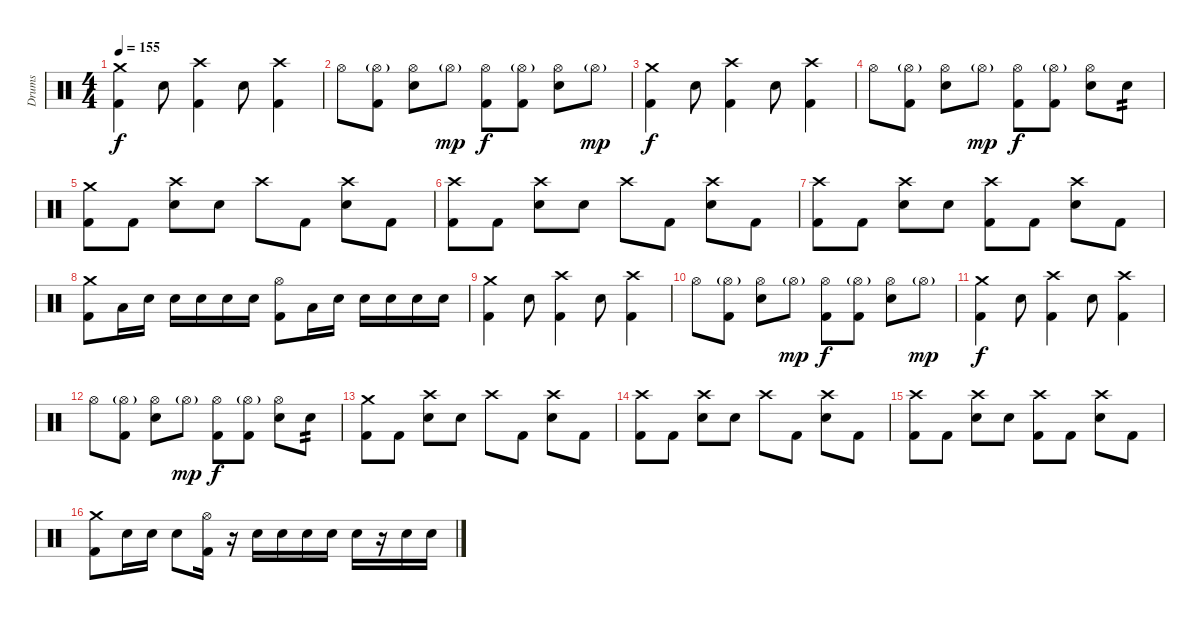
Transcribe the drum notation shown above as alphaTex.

\track ("Drums" "Drums") {instrument percussion}
\staff {score}
\articulation defaults
\ts (4 4)
\tempo 155
\clef neutral
\ks c
("Crash medium (hit)" "Kick (hit) 2").4{dy f} "Electric Snare (hit)".8 ("Crash high (hit)" "Kick (hit) 2").4 "Electric Snare (hit)".8 ("Crash high (hit)" "Kick (hit) 2").4 |
"Hi-Hat (open)".8 ("Hi-Hat (open)"{g} "Kick (hit) 2").8 ("Hi-Hat (open)" "Electric Snare (hit)").8 "Hi-Hat (open)"{g}.8{dy mp} ("Hi-Hat (open)" "Kick (hit) 2").8{dy f} ("Hi-Hat (open)"{g} "Kick (hit) 2").8 ("Hi-Hat (open)" "Electric Snare (hit)").8 "Hi-Hat (open)"{g}.8{dy mp} |
("Crash medium (hit)" "Kick (hit) 2").4{dy f} "Electric Snare (hit)".8 ("Crash high (hit)" "Kick (hit) 2").4 "Electric Snare (hit)".8 ("Crash high (hit)" "Kick (hit) 2").4 |
"Hi-Hat (open)".8 ("Hi-Hat (open)"{g} "Kick (hit) 2").8 ("Hi-Hat (open)" "Electric Snare (hit)").8 "Hi-Hat (open)"{g}.8{dy mp} ("Hi-Hat (open)" "Kick (hit) 2").8{dy f} ("Hi-Hat (open)"{g} "Kick (hit) 2").8 ("Hi-Hat (open)" "Electric Snare (hit)").8 "Electric Snare (hit)".8{tp 2} |
("Crash medium (hit)" "Kick (hit) 2").8 "Kick (hit) 2".8 ("Crash high (hit)" "Electric Snare (hit)").8 "Electric Snare (hit)".8 "Crash high (hit)".8 "Kick (hit) 2".8 ("Crash high (hit)" "Electric Snare (hit)").8 "Kick (hit) 2".8 |
("Crash high (hit)" "Kick (hit) 2").8 "Kick (hit) 2".8 ("Crash high (hit)" "Electric Snare (hit)").8 "Electric Snare (hit)".8 "Crash high (hit)".8 "Kick (hit) 2".8 ("Crash high (hit)" "Electric Snare (hit)").8 "Kick (hit) 2".8 |
("Crash high (hit)" "Kick (hit) 2").8 "Kick (hit) 2".8 ("Crash high (hit)" "Electric Snare (hit)").8 "Electric Snare (hit)".8 ("Crash high (hit)" "Kick (hit) 2").8 "Kick (hit) 2".8 ("Crash high (hit)" "Electric Snare (hit)").8 "Kick (hit) 2".8 |
("Crash medium (hit)" "Kick (hit) 2").8 "Low Tom (hit)".16 "Electric Snare (hit)".16 "Electric Snare (hit)".16 "Electric Snare (hit)".16 "Electric Snare (hit)".16 "Electric Snare (hit)".16 ("Kick (hit) 2" "Hi-Hat (open)").8 "Low Tom (hit)".16 "Electric Snare (hit)".16 "Electric Snare (hit)".16 "Electric Snare (hit)".16 "Electric Snare (hit)".16 "Electric Snare (hit)".16 |
("Crash medium (hit)" "Kick (hit) 2").4 "Electric Snare (hit)".8 ("Crash high (hit)" "Kick (hit) 2").4 "Electric Snare (hit)".8 ("Crash high (hit)" "Kick (hit) 2").4 |
"Hi-Hat (open)".8 ("Hi-Hat (open)"{g} "Kick (hit) 2").8 ("Hi-Hat (open)" "Electric Snare (hit)").8 "Hi-Hat (open)"{g}.8{dy mp} ("Hi-Hat (open)" "Kick (hit) 2").8{dy f} ("Hi-Hat (open)"{g} "Kick (hit) 2").8 ("Hi-Hat (open)" "Electric Snare (hit)").8 "Hi-Hat (open)"{g}.8{dy mp} |
("Crash medium (hit)" "Kick (hit) 2").4{dy f} "Electric Snare (hit)".8 ("Crash high (hit)" "Kick (hit) 2").4 "Electric Snare (hit)".8 ("Crash high (hit)" "Kick (hit) 2").4 |
"Hi-Hat (open)".8 ("Hi-Hat (open)"{g} "Kick (hit) 2").8 ("Hi-Hat (open)" "Electric Snare (hit)").8 "Hi-Hat (open)"{g}.8{dy mp} ("Hi-Hat (open)" "Kick (hit) 2").8{dy f} ("Hi-Hat (open)"{g} "Kick (hit) 2").8 ("Hi-Hat (open)" "Electric Snare (hit)").8 "Electric Snare (hit)".8{tp 2} |
("Crash medium (hit)" "Kick (hit) 2").8 "Kick (hit) 2".8 ("Crash high (hit)" "Electric Snare (hit)").8 "Electric Snare (hit)".8 "Crash high (hit)".8 "Kick (hit) 2".8 ("Crash high (hit)" "Electric Snare (hit)").8 "Kick (hit) 2".8 |
("Crash high (hit)" "Kick (hit) 2").8 "Kick (hit) 2".8 ("Crash high (hit)" "Electric Snare (hit)").8 "Electric Snare (hit)".8 "Crash high (hit)".8 "Kick (hit) 2".8 ("Crash high (hit)" "Electric Snare (hit)").8 "Kick (hit) 2".8 |
("Crash high (hit)" "Kick (hit) 2").8 "Kick (hit) 2".8 ("Crash high (hit)" "Electric Snare (hit)").8 "Electric Snare (hit)".8 ("Crash high (hit)" "Kick (hit) 2").8 "Kick (hit) 2".8 ("Crash high (hit)" "Electric Snare (hit)").8 "Kick (hit) 2".8 |
("Crash medium (hit)" "Kick (hit) 2").8 "Electric Snare (hit)".16 "Electric Snare (hit)".16 "Electric Snare (hit)".8 ("Hi-Hat (open)" "Kick (hit) 2").16 r.16 "Electric Snare (hit)".16 "Electric Snare (hit)".16 "Electric Snare (hit)".16 "Electric Snare (hit)".16 "Electric Snare (hit)".16 r.16 "Electric Snare (hit)".16 "Electric Snare (hit)".16
